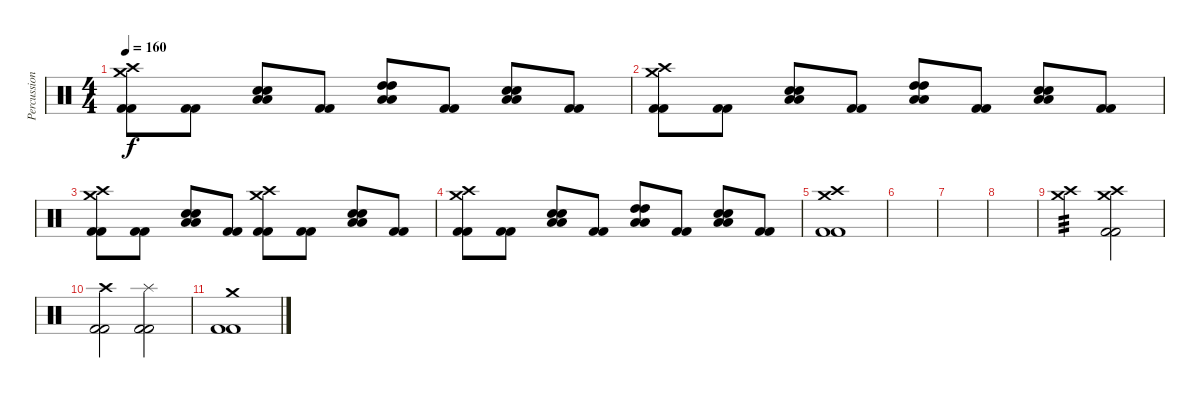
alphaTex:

\track ("Percussion" "Percussion") {instrument percussion}
\staff {score}
\articulation defaults
\ts (4 4)
\tempo 160
\clef neutral
\ks c
("Crash high (hit)" "Crash medium (hit)" "Kick (hit) 2" "Kick (hit) 2").8{dy f} ("Kick (hit) 2" "Kick (hit) 2").8 ("Low Floor Tom (hit)" "Low Floor Tom (hit)" "Snare (hit) 2" "Snare (hit) 2").8 ("Kick (hit) 2" "Kick (hit) 2").8 ("Low Floor Tom (hit)" "Low Floor Tom (hit)" "High Tom (hit)" "High Tom (hit)").8 ("Kick (hit) 2" "Kick (hit) 2").8 ("Low Floor Tom (hit)" "Low Floor Tom (hit)" "Snare (hit) 2" "Snare (hit) 2").8 ("Kick (hit) 2" "Kick (hit) 2").8 |
("Crash high (hit)" "Crash medium (hit)" "Kick (hit) 2" "Kick (hit) 2").8 ("Kick (hit) 2" "Kick (hit) 2").8 ("Low Floor Tom (hit)" "Low Floor Tom (hit)" "Snare (hit) 2" "Snare (hit) 2").8 ("Kick (hit) 2" "Kick (hit) 2").8 ("Low Floor Tom (hit)" "Low Floor Tom (hit)" "High Tom (hit)" "High Tom (hit)").8 ("Kick (hit) 2" "Kick (hit) 2").8 ("Low Floor Tom (hit)" "Low Floor Tom (hit)" "Snare (hit) 2" "Snare (hit) 2").8 ("Kick (hit) 2" "Kick (hit) 2").8 |
("Crash high (hit)" "Crash medium (hit)" "Kick (hit) 2" "Kick (hit) 2").8 ("Kick (hit) 2" "Kick (hit) 2").8 ("Low Floor Tom (hit)" "Low Floor Tom (hit)" "Snare (hit) 2" "Snare (hit) 2").8 ("Kick (hit) 2" "Kick (hit) 2").8 ("Crash high (hit)" "Crash medium (hit)" "Kick (hit) 2" "Kick (hit) 2").8 ("Kick (hit) 2" "Kick (hit) 2").8 ("Low Floor Tom (hit)" "Low Floor Tom (hit)" "Snare (hit) 2" "Snare (hit) 2").8 ("Kick (hit) 2" "Kick (hit) 2").8 |
("Crash high (hit)" "Crash medium (hit)" "Kick (hit) 2" "Kick (hit) 2").8 ("Kick (hit) 2" "Kick (hit) 2").8 ("Low Floor Tom (hit)" "Low Floor Tom (hit)" "Snare (hit) 2" "Snare (hit) 2").8 ("Kick (hit) 2" "Kick (hit) 2").8 ("Low Floor Tom (hit)" "Low Floor Tom (hit)" "High Tom (hit)" "High Tom (hit)").8 ("Kick (hit) 2" "Kick (hit) 2").8 ("Low Floor Tom (hit)" "Low Floor Tom (hit)" "Snare (hit) 2" "Snare (hit) 2").8 ("Kick (hit) 2" "Kick (hit) 2").8 |
("Crash high (hit)" "Crash medium (hit)" "Kick (hit) 2" "Kick (hit) 2").1 |
|
|
|
("Crash medium (hit)" "Crash high (hit)").2{tp 3} ("Crash medium (hit)" "Crash high (hit)" "Kick (hit) 2" "Kick (hit) 2").2 |
("Crash high (hit)" "Kick (hit) 2" "Kick (hit) 2").2 ("Splash (hit)" "Kick (hit) 2" "Kick (hit) 2").2 |
("Crash medium (hit)" "Kick (hit) 2" "Kick (hit) 2").1
